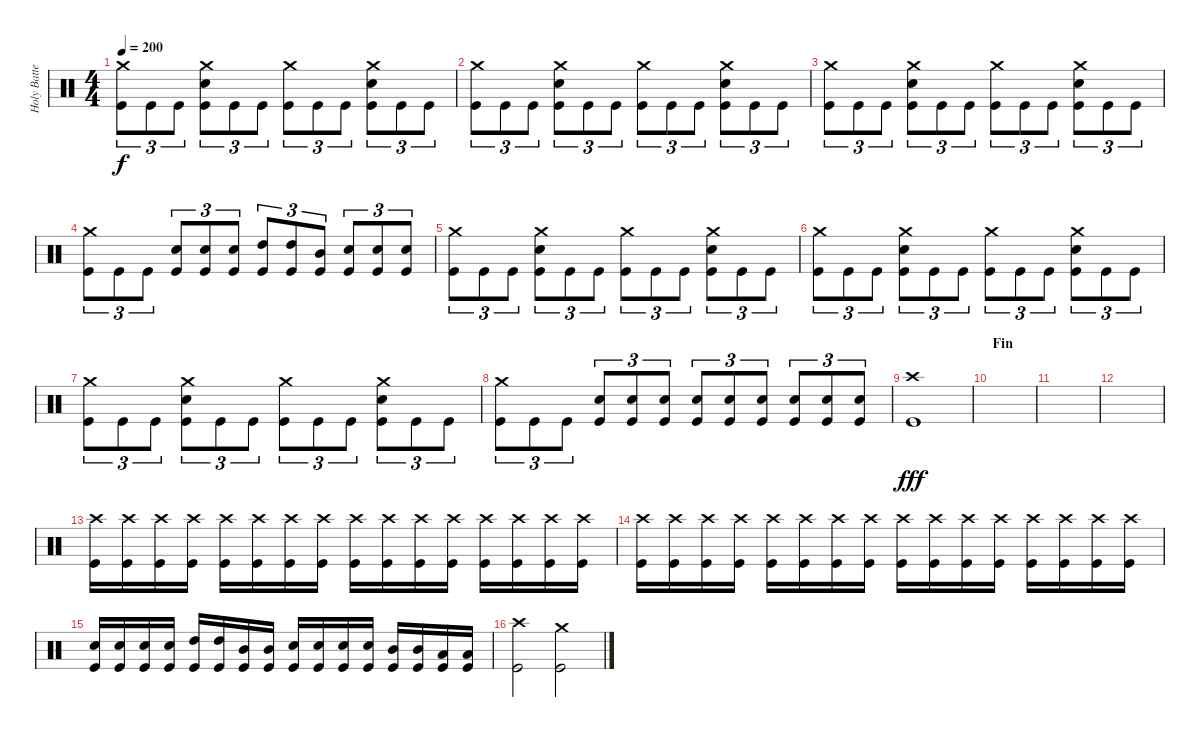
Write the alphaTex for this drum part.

\track ("Holy Batteur" "Holy Batte") {instrument percussion}
\staff {score}
\articulation defaults
\ts (4 4)
\tempo 200
\clef neutral
\ks c
("Crash medium (hit)" "Kick (hit)").8{tu (3 2) dy f} "Kick (hit)".8{tu (3 2)} "Kick (hit)".8{tu (3 2)} ("Crash medium (hit)" "Electric Snare (hit)" "Kick (hit)").8{tu (3 2)} "Kick (hit)".8{tu (3 2)} "Kick (hit)".8{tu (3 2)} ("Crash medium (hit)" "Kick (hit)").8{tu (3 2)} "Kick (hit)".8{tu (3 2)} "Kick (hit)".8{tu (3 2)} ("Crash medium (hit)" "Electric Snare (hit)" "Kick (hit)").8{tu (3 2)} "Kick (hit)".8{tu (3 2)} "Kick (hit)".8{tu (3 2)} |
("Crash medium (hit)" "Kick (hit)").8{tu (3 2)} "Kick (hit)".8{tu (3 2)} "Kick (hit)".8{tu (3 2)} ("Crash medium (hit)" "Electric Snare (hit)" "Kick (hit)").8{tu (3 2)} "Kick (hit)".8{tu (3 2)} "Kick (hit)".8{tu (3 2)} ("Crash medium (hit)" "Kick (hit)").8{tu (3 2)} "Kick (hit)".8{tu (3 2)} "Kick (hit)".8{tu (3 2)} ("Crash medium (hit)" "Electric Snare (hit)" "Kick (hit)").8{tu (3 2)} "Kick (hit)".8{tu (3 2)} "Kick (hit)".8{tu (3 2)} |
("Crash medium (hit)" "Kick (hit)").8{tu (3 2)} "Kick (hit)".8{tu (3 2)} "Kick (hit)".8{tu (3 2)} ("Crash medium (hit)" "Electric Snare (hit)" "Kick (hit)").8{tu (3 2)} "Kick (hit)".8{tu (3 2)} "Kick (hit)".8{tu (3 2)} ("Crash medium (hit)" "Kick (hit)").8{tu (3 2)} "Kick (hit)".8{tu (3 2)} "Kick (hit)".8{tu (3 2)} ("Crash medium (hit)" "Electric Snare (hit)" "Kick (hit)").8{tu (3 2)} "Kick (hit)".8{tu (3 2)} "Kick (hit)".8{tu (3 2)} |
("Crash medium (hit)" "Kick (hit)").8{tu (3 2)} "Kick (hit)".8{tu (3 2)} "Kick (hit)".8{tu (3 2)} ("Electric Snare (hit)" "Kick (hit)").8{tu (3 2)} ("Electric Snare (hit)" "Kick (hit)").8{tu (3 2)} ("Electric Snare (hit)" "Kick (hit)").8{tu (3 2)} ("High Tom (hit)" "Kick (hit)").8{tu (3 2)} ("High Tom (hit)" "Kick (hit)").8{tu (3 2)} ("Mid Tom (hit)" "Kick (hit)").8{tu (3 2)} ("Electric Snare (hit)" "Kick (hit)").8{tu (3 2)} ("Electric Snare (hit)" "Kick (hit)").8{tu (3 2)} ("Electric Snare (hit)" "Kick (hit)").8{tu (3 2)} |
("Crash medium (hit)" "Kick (hit)").8{tu (3 2)} "Kick (hit)".8{tu (3 2)} "Kick (hit)".8{tu (3 2)} ("Crash medium (hit)" "Electric Snare (hit)" "Kick (hit)").8{tu (3 2)} "Kick (hit)".8{tu (3 2)} "Kick (hit)".8{tu (3 2)} ("Crash medium (hit)" "Kick (hit)").8{tu (3 2)} "Kick (hit)".8{tu (3 2)} "Kick (hit)".8{tu (3 2)} ("Crash medium (hit)" "Electric Snare (hit)" "Kick (hit)").8{tu (3 2)} "Kick (hit)".8{tu (3 2)} "Kick (hit)".8{tu (3 2)} |
("Crash medium (hit)" "Kick (hit)").8{tu (3 2)} "Kick (hit)".8{tu (3 2)} "Kick (hit)".8{tu (3 2)} ("Crash medium (hit)" "Electric Snare (hit)" "Kick (hit)").8{tu (3 2)} "Kick (hit)".8{tu (3 2)} "Kick (hit)".8{tu (3 2)} ("Crash medium (hit)" "Kick (hit)").8{tu (3 2)} "Kick (hit)".8{tu (3 2)} "Kick (hit)".8{tu (3 2)} ("Crash medium (hit)" "Electric Snare (hit)" "Kick (hit)").8{tu (3 2)} "Kick (hit)".8{tu (3 2)} "Kick (hit)".8{tu (3 2)} |
("Crash medium (hit)" "Kick (hit)").8{tu (3 2)} "Kick (hit)".8{tu (3 2)} "Kick (hit)".8{tu (3 2)} ("Crash medium (hit)" "Electric Snare (hit)" "Kick (hit)").8{tu (3 2)} "Kick (hit)".8{tu (3 2)} "Kick (hit)".8{tu (3 2)} ("Crash medium (hit)" "Kick (hit)").8{tu (3 2)} "Kick (hit)".8{tu (3 2)} "Kick (hit)".8{tu (3 2)} ("Crash medium (hit)" "Electric Snare (hit)" "Kick (hit)").8{tu (3 2)} "Kick (hit)".8{tu (3 2)} "Kick (hit)".8{tu (3 2)} |
("Crash medium (hit)" "Kick (hit)").8{tu (3 2)} "Kick (hit)".8{tu (3 2)} "Kick (hit)".8{tu (3 2)} ("Electric Snare (hit)" "Kick (hit)").8{tu (3 2)} ("Electric Snare (hit)" "Kick (hit)").8{tu (3 2)} ("Electric Snare (hit)" "Kick (hit)").8{tu (3 2)} ("Electric Snare (hit)" "Kick (hit)").8{tu (3 2)} ("Electric Snare (hit)" "Kick (hit)").8{tu (3 2)} ("Electric Snare (hit)" "Kick (hit)").8{tu (3 2)} ("Electric Snare (hit)" "Kick (hit)").8{tu (3 2)} ("Electric Snare (hit)" "Kick (hit)").8{tu (3 2)} ("Electric Snare (hit)" "Kick (hit)").8{tu (3 2)} |
("Crash high (hit)" "Kick (hit)").1{dy fff} |
\section ("" "Fin")
|
|
|
("Crash high (hit)" "Kick (hit)").16 ("Crash high (hit)" "Kick (hit)").16 ("Crash high (hit)" "Kick (hit)").16 ("Crash high (hit)" "Kick (hit)").16 ("Crash high (hit)" "Kick (hit)").16 ("Crash high (hit)" "Kick (hit)").16 ("Crash high (hit)" "Kick (hit)").16 ("Crash high (hit)" "Kick (hit)").16 ("Crash high (hit)" "Kick (hit)").16 ("Crash high (hit)" "Kick (hit)").16 ("Crash high (hit)" "Kick (hit)").16 ("Crash high (hit)" "Kick (hit)").16 ("Crash high (hit)" "Kick (hit)").16 ("Crash high (hit)" "Kick (hit)").16 ("Crash high (hit)" "Kick (hit)").16 ("Crash high (hit)" "Kick (hit)").16 |
("Crash high (hit)" "Kick (hit)").16 ("Crash high (hit)" "Kick (hit)").16 ("Crash high (hit)" "Kick (hit)").16 ("Crash high (hit)" "Kick (hit)").16 ("Crash high (hit)" "Kick (hit)").16 ("Crash high (hit)" "Kick (hit)").16 ("Crash high (hit)" "Kick (hit)").16 ("Crash high (hit)" "Kick (hit)").16 ("Crash high (hit)" "Kick (hit)").16 ("Crash high (hit)" "Kick (hit)").16 ("Crash high (hit)" "Kick (hit)").16 ("Crash high (hit)" "Kick (hit)").16 ("Crash high (hit)" "Kick (hit)").16 ("Crash high (hit)" "Kick (hit)").16 ("Crash high (hit)" "Kick (hit)").16 ("Crash high (hit)" "Kick (hit)").16 |
("Electric Snare (hit)" "Kick (hit)").16 ("Electric Snare (hit)" "Kick (hit)").16 ("Electric Snare (hit)" "Kick (hit)").16 ("Electric Snare (hit)" "Kick (hit)").16 ("High Tom (hit)" "Kick (hit)").16 ("High Tom (hit)" "Kick (hit)").16 ("Mid Tom (hit)" "Kick (hit)").16 ("Mid Tom (hit)" "Kick (hit)").16 ("Electric Snare (hit)" "Kick (hit)").16 ("Electric Snare (hit)" "Kick (hit)").16 ("Electric Snare (hit)" "Kick (hit)").16 ("Electric Snare (hit)" "Kick (hit)").16 ("Mid Tom (hit)" "Kick (hit)").16 ("Mid Tom (hit)" "Kick (hit)").16 ("Low Tom (hit)" "Kick (hit)").16 ("Low Tom (hit)" "Kick (hit)").16 |
("Crash high (hit)" "Kick (hit)").2 ("Crash medium (hit)" "Kick (hit)").2
